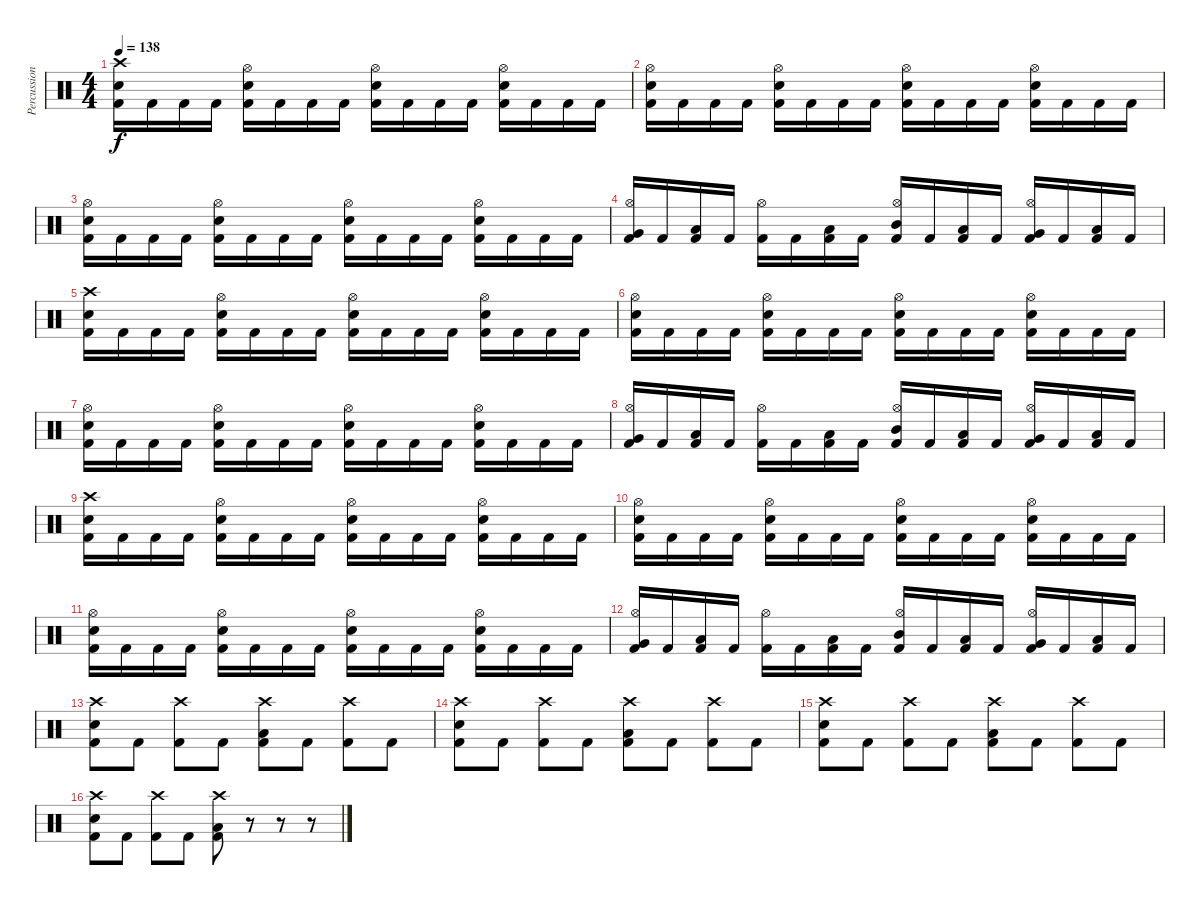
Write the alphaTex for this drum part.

\track ("Percussion" "Percussion") {instrument percussion}
\staff {score}
\articulation defaults
\ts (4 4)
\tempo 138
\clef neutral
\ks c
("Crash high (hit)" "Electric Snare (hit)" "Kick (hit) 2").16{dy f} "Kick (hit) 2".16 "Kick (hit) 2".16 "Kick (hit) 2".16 ("Hi-Hat (open)" "Electric Snare (hit)" "Kick (hit) 2").16 "Kick (hit) 2".16 "Kick (hit) 2".16 "Kick (hit) 2".16 ("Hi-Hat (open)" "Electric Snare (hit)" "Kick (hit) 2").16 "Kick (hit) 2".16 "Kick (hit) 2".16 "Kick (hit) 2".16 ("Hi-Hat (open)" "Electric Snare (hit)" "Kick (hit) 2").16 "Kick (hit) 2".16 "Kick (hit) 2".16 "Kick (hit) 2".16 |
("Hi-Hat (open)" "Electric Snare (hit)" "Kick (hit) 2").16 "Kick (hit) 2".16 "Kick (hit) 2".16 "Kick (hit) 2".16 ("Hi-Hat (open)" "Electric Snare (hit)" "Kick (hit) 2").16 "Kick (hit) 2".16 "Kick (hit) 2".16 "Kick (hit) 2".16 ("Hi-Hat (open)" "Electric Snare (hit)" "Kick (hit) 2").16 "Kick (hit) 2".16 "Kick (hit) 2".16 "Kick (hit) 2".16 ("Hi-Hat (open)" "Electric Snare (hit)" "Kick (hit) 2").16 "Kick (hit) 2".16 "Kick (hit) 2".16 "Kick (hit) 2".16 |
("Hi-Hat (open)" "Electric Snare (hit)" "Kick (hit) 2").16 "Kick (hit) 2".16 "Kick (hit) 2".16 "Kick (hit) 2".16 ("Hi-Hat (open)" "Electric Snare (hit)" "Kick (hit) 2").16 "Kick (hit) 2".16 "Kick (hit) 2".16 "Kick (hit) 2".16 ("Hi-Hat (open)" "Electric Snare (hit)" "Kick (hit) 2").16 "Kick (hit) 2".16 "Kick (hit) 2".16 "Kick (hit) 2".16 ("Hi-Hat (open)" "Electric Snare (hit)" "Kick (hit) 2").16 "Kick (hit) 2".16 "Kick (hit) 2".16 "Kick (hit) 2".16 |
("Hi-Hat (open)" "Very Low Tom (hit)" "Kick (hit) 2").16 "Kick (hit) 2".16 ("Low Tom (hit)" "Kick (hit) 2").16 "Kick (hit) 2".16 ("Hi-Hat (open)" "Kick (hit) 2").16 "Kick (hit) 2".16 ("Low Floor Tom (hit)" "Kick (hit) 2").16 "Kick (hit) 2".16 ("Hi-Hat (open)" "Mid Tom (hit)" "Kick (hit) 2").16 "Kick (hit) 2".16 ("Low Tom (hit)" "Kick (hit) 2").16 "Kick (hit) 2".16 ("Hi-Hat (open)" "Very Low Tom (hit)" "Kick (hit) 2").16 "Kick (hit) 2".16 ("Low Tom (hit)" "Kick (hit) 2").16 "Kick (hit) 2".16 |
("Crash high (hit)" "Electric Snare (hit)" "Kick (hit) 2").16 "Kick (hit) 2".16 "Kick (hit) 2".16 "Kick (hit) 2".16 ("Hi-Hat (open)" "Electric Snare (hit)" "Kick (hit) 2").16 "Kick (hit) 2".16 "Kick (hit) 2".16 "Kick (hit) 2".16 ("Hi-Hat (open)" "Electric Snare (hit)" "Kick (hit) 2").16 "Kick (hit) 2".16 "Kick (hit) 2".16 "Kick (hit) 2".16 ("Hi-Hat (open)" "Electric Snare (hit)" "Kick (hit) 2").16 "Kick (hit) 2".16 "Kick (hit) 2".16 "Kick (hit) 2".16 |
("Hi-Hat (open)" "Electric Snare (hit)" "Kick (hit) 2").16 "Kick (hit) 2".16 "Kick (hit) 2".16 "Kick (hit) 2".16 ("Hi-Hat (open)" "Electric Snare (hit)" "Kick (hit) 2").16 "Kick (hit) 2".16 "Kick (hit) 2".16 "Kick (hit) 2".16 ("Hi-Hat (open)" "Electric Snare (hit)" "Kick (hit) 2").16 "Kick (hit) 2".16 "Kick (hit) 2".16 "Kick (hit) 2".16 ("Hi-Hat (open)" "Electric Snare (hit)" "Kick (hit) 2").16 "Kick (hit) 2".16 "Kick (hit) 2".16 "Kick (hit) 2".16 |
("Hi-Hat (open)" "Electric Snare (hit)" "Kick (hit) 2").16 "Kick (hit) 2".16 "Kick (hit) 2".16 "Kick (hit) 2".16 ("Hi-Hat (open)" "Electric Snare (hit)" "Kick (hit) 2").16 "Kick (hit) 2".16 "Kick (hit) 2".16 "Kick (hit) 2".16 ("Hi-Hat (open)" "Electric Snare (hit)" "Kick (hit) 2").16 "Kick (hit) 2".16 "Kick (hit) 2".16 "Kick (hit) 2".16 ("Hi-Hat (open)" "Electric Snare (hit)" "Kick (hit) 2").16 "Kick (hit) 2".16 "Kick (hit) 2".16 "Kick (hit) 2".16 |
("Hi-Hat (open)" "Very Low Tom (hit)" "Kick (hit) 2").16 "Kick (hit) 2".16 ("Low Tom (hit)" "Kick (hit) 2").16 "Kick (hit) 2".16 ("Hi-Hat (open)" "Kick (hit) 2").16 "Kick (hit) 2".16 ("Low Floor Tom (hit)" "Kick (hit) 2").16 "Kick (hit) 2".16 ("Hi-Hat (open)" "Mid Tom (hit)" "Kick (hit) 2").16 "Kick (hit) 2".16 ("Low Tom (hit)" "Kick (hit) 2").16 "Kick (hit) 2".16 ("Hi-Hat (open)" "Very Low Tom (hit)" "Kick (hit) 2").16 "Kick (hit) 2".16 ("Low Tom (hit)" "Kick (hit) 2").16 "Kick (hit) 2".16 |
("Crash high (hit)" "Electric Snare (hit)" "Kick (hit) 2").16 "Kick (hit) 2".16 "Kick (hit) 2".16 "Kick (hit) 2".16 ("Hi-Hat (open)" "Electric Snare (hit)" "Kick (hit) 2").16 "Kick (hit) 2".16 "Kick (hit) 2".16 "Kick (hit) 2".16 ("Hi-Hat (open)" "Electric Snare (hit)" "Kick (hit) 2").16 "Kick (hit) 2".16 "Kick (hit) 2".16 "Kick (hit) 2".16 ("Hi-Hat (open)" "Electric Snare (hit)" "Kick (hit) 2").16 "Kick (hit) 2".16 "Kick (hit) 2".16 "Kick (hit) 2".16 |
("Hi-Hat (open)" "Electric Snare (hit)" "Kick (hit) 2").16 "Kick (hit) 2".16 "Kick (hit) 2".16 "Kick (hit) 2".16 ("Hi-Hat (open)" "Electric Snare (hit)" "Kick (hit) 2").16 "Kick (hit) 2".16 "Kick (hit) 2".16 "Kick (hit) 2".16 ("Hi-Hat (open)" "Electric Snare (hit)" "Kick (hit) 2").16 "Kick (hit) 2".16 "Kick (hit) 2".16 "Kick (hit) 2".16 ("Hi-Hat (open)" "Electric Snare (hit)" "Kick (hit) 2").16 "Kick (hit) 2".16 "Kick (hit) 2".16 "Kick (hit) 2".16 |
("Hi-Hat (open)" "Electric Snare (hit)" "Kick (hit) 2").16 "Kick (hit) 2".16 "Kick (hit) 2".16 "Kick (hit) 2".16 ("Hi-Hat (open)" "Electric Snare (hit)" "Kick (hit) 2").16 "Kick (hit) 2".16 "Kick (hit) 2".16 "Kick (hit) 2".16 ("Hi-Hat (open)" "Electric Snare (hit)" "Kick (hit) 2").16 "Kick (hit) 2".16 "Kick (hit) 2".16 "Kick (hit) 2".16 ("Hi-Hat (open)" "Electric Snare (hit)" "Kick (hit) 2").16 "Kick (hit) 2".16 "Kick (hit) 2".16 "Kick (hit) 2".16 |
("Hi-Hat (open)" "Very Low Tom (hit)" "Kick (hit) 2").16 "Kick (hit) 2".16 ("Low Tom (hit)" "Kick (hit) 2").16 "Kick (hit) 2".16 ("Hi-Hat (open)" "Kick (hit) 2").16 "Kick (hit) 2".16 ("Low Floor Tom (hit)" "Kick (hit) 2").16 "Kick (hit) 2".16 ("Hi-Hat (open)" "Mid Tom (hit)" "Kick (hit) 2").16 "Kick (hit) 2".16 ("Low Tom (hit)" "Kick (hit) 2").16 "Kick (hit) 2".16 ("Hi-Hat (open)" "Very Low Tom (hit)" "Kick (hit) 2").16 "Kick (hit) 2".16 ("Low Tom (hit)" "Kick (hit) 2").16 "Kick (hit) 2".16 |
("Crash high (hit)" "Electric Snare (hit)" "Kick (hit) 2").8 "Kick (hit) 2".8 ("Crash high (hit)" "Kick (hit) 2").8 "Kick (hit) 2".8 ("Crash high (hit)" "Low Tom (hit)" "Kick (hit) 2").8 "Kick (hit) 2".8 ("Crash high (hit)" "Kick (hit) 2").8 "Kick (hit) 2".8 |
("Crash high (hit)" "Electric Snare (hit)" "Kick (hit) 2").8 "Kick (hit) 2".8 ("Crash high (hit)" "Kick (hit) 2").8 "Kick (hit) 2".8 ("Crash high (hit)" "Low Tom (hit)" "Kick (hit) 2").8 "Kick (hit) 2".8 ("Crash high (hit)" "Kick (hit) 2").8 "Kick (hit) 2".8 |
("Crash high (hit)" "Electric Snare (hit)" "Kick (hit) 2").8 "Kick (hit) 2".8 ("Crash high (hit)" "Kick (hit) 2").8 "Kick (hit) 2".8 ("Crash high (hit)" "Low Tom (hit)" "Kick (hit) 2").8 "Kick (hit) 2".8 ("Crash high (hit)" "Kick (hit) 2").8 "Kick (hit) 2".8 |
("Crash high (hit)" "Electric Snare (hit)" "Kick (hit) 2").8 "Kick (hit) 2".8 ("Crash high (hit)" "Kick (hit) 2").8 "Kick (hit) 2".8 ("Crash high (hit)" "Low Tom (hit)" "Kick (hit) 2").8 r.8 r.8 r.8
